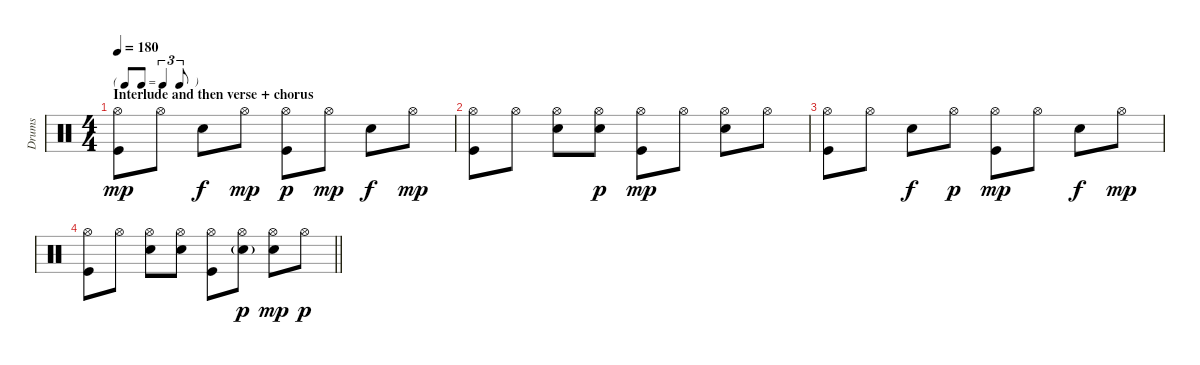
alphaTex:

\track ("Drums" "Drums") {instrument percussion}
\staff {score}
\articulation defaults
\ts (4 4)
\tf triplet8th
\section ("" "Interlude and then verse + chorus")
\tempo 180
\clef neutral
\ks c
("Hi-Hat (open)" "Kick (hit)").8{dy mp} "Hi-Hat (open)".8 "Electric Snare (hit)".8{dy f} "Hi-Hat (open)".8{dy mp} ("Hi-Hat (open)" "Kick (hit)").8{dy p} "Hi-Hat (open)".8{dy mp} "Electric Snare (hit)".8{dy f} "Hi-Hat (open)".8{dy mp} |
("Hi-Hat (open)" "Kick (hit)").8 "Hi-Hat (open)".8 ("Hi-Hat (open)" "Electric Snare (hit)").8 ("Electric Snare (hit)" "Hi-Hat (open)").8{dy p} ("Hi-Hat (open)" "Kick (hit)").8{dy mp} "Hi-Hat (open)".8 ("Hi-Hat (open)" "Electric Snare (hit)").8 "Hi-Hat (open)".8 |
("Hi-Hat (open)" "Kick (hit)").8 "Hi-Hat (open)".8 "Electric Snare (hit)".8{dy f} "Hi-Hat (open)".8{dy p} ("Hi-Hat (open)" "Kick (hit)").8{dy mp} "Hi-Hat (open)".8 "Electric Snare (hit)".8{dy f} "Hi-Hat (open)".8{dy mp} |
\barLineRight lightlight
("Hi-Hat (open)" "Kick (hit)").8 "Hi-Hat (open)".8 ("Hi-Hat (open)" "Electric Snare (hit)").8 ("Electric Snare (hit)" "Hi-Hat (open)").8 ("Hi-Hat (open)" "Kick (hit)").8 ("Electric Snare (hit)"{g} "Hi-Hat (open)").8{dy p} ("Hi-Hat (open)" "Electric Snare (hit)").8{dy mp} "Hi-Hat (open)".8{dy p}
